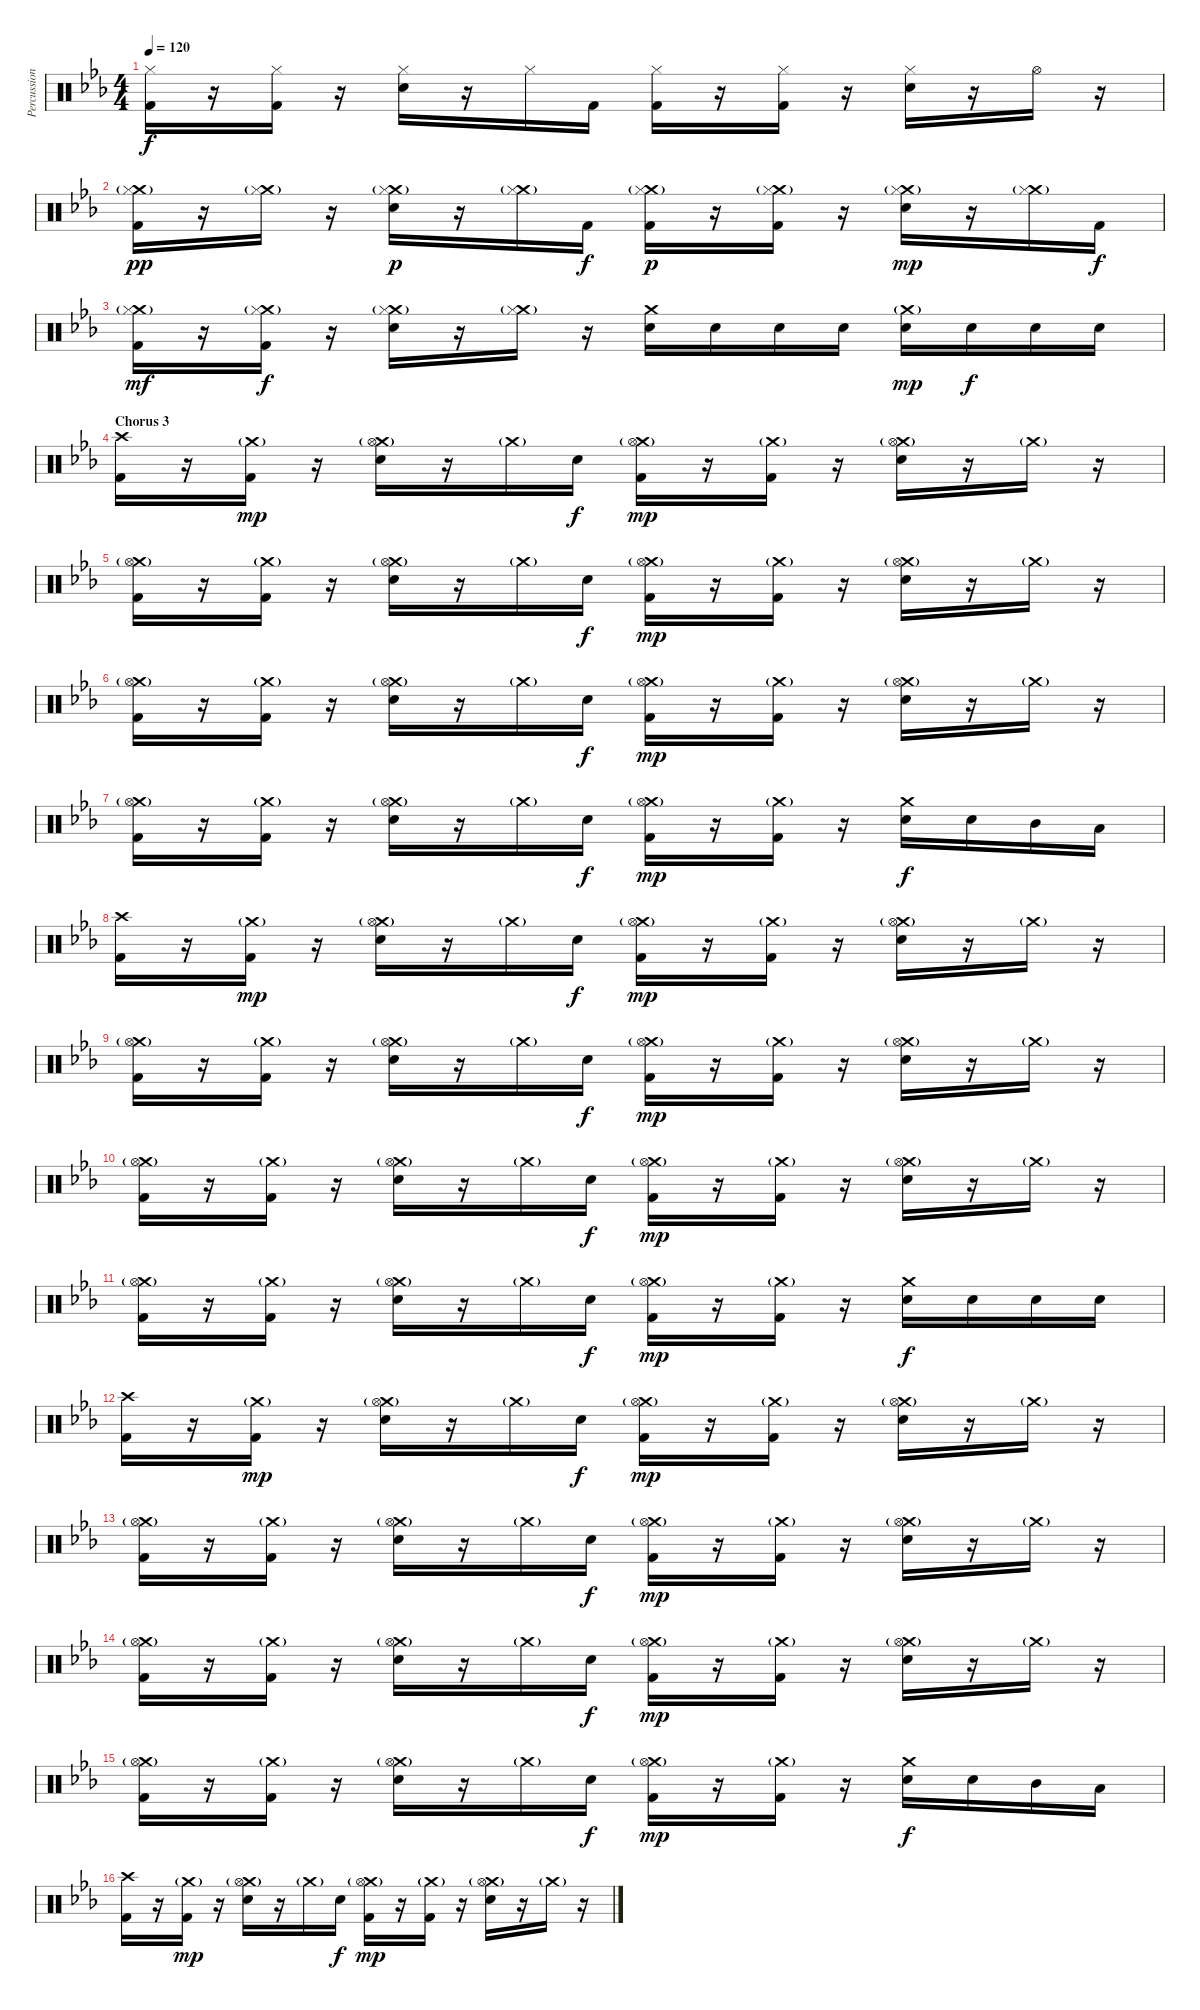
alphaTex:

\track ("Percussion" "Percussion") {instrument percussion}
\staff {score}
\articulation defaults
\ts (4 4)
\tempo 120
\clef neutral
\ks eb
("Hi-Hat (closed)" "Kick (hit) 2").16{dy f} r.16 ("Hi-Hat (closed)" "Kick (hit) 2").16 r.16 ("Hi-Hat (closed)" "Electric Snare (hit)").16 r.16 "Hi-Hat (closed)".16 "Kick (hit) 2".16 ("Hi-Hat (closed)" "Kick (hit) 2").16 r.16 ("Hi-Hat (closed)" "Kick (hit) 2").16 r.16 ("Hi-Hat (closed)" "Electric Snare (hit)").16 r.16 "Hi-Hat (open)".16 r.16 |
("Crash medium (hit)"{g} "Hi-Hat (closed)" "Kick (hit) 2").16{dy pp} r.16 ("Crash medium (hit)"{g} "Hi-Hat (closed)").16 r.16 ("Crash medium (hit)"{g} "Hi-Hat (closed)" "Electric Snare (hit)").16{dy p} r.16 ("Crash medium (hit)"{g} "Hi-Hat (closed)").16 "Kick (hit) 2".16{dy f} ("Crash medium (hit)"{g} "Hi-Hat (closed)" "Kick (hit) 2").16{dy p} r.16 ("Crash medium (hit)"{g} "Hi-Hat (closed)" "Kick (hit) 2").16 r.16 ("Crash medium (hit)"{g} "Hi-Hat (closed)" "Electric Snare (hit)").16{dy mp} r.16 ("Crash medium (hit)"{g} "Hi-Hat (closed)").16 "Kick (hit) 2".16{dy f} |
("Crash medium (hit)"{g} "Hi-Hat (closed)" "Kick (hit) 2").16{dy mf} r.16 ("Crash medium (hit)"{g} "Hi-Hat (closed)" "Kick (hit) 2").16{dy f} r.16 ("Crash medium (hit)"{g} "Hi-Hat (closed)" "Electric Snare (hit)").16 r.16 ("Crash medium (hit)"{g} "Hi-Hat (closed)").16 r.16 ("Crash medium (hit)" "Electric Snare (hit)").16 "Electric Snare (hit)".16 "Electric Snare (hit)".16 "Electric Snare (hit)".16 ("Crash medium (hit)"{g} "Electric Snare (hit)").16{dy mp} "Electric Snare (hit)".16{dy f} "Electric Snare (hit)".16 "Electric Snare (hit)".16 |
\section ("" "Chorus 3")
("Crash high (hit)" "Kick (hit) 2").16 r.16 ("Crash medium (hit)"{g} "Kick (hit) 2").16{dy mp} r.16 ("Crash medium (hit)"{g} "Hi-Hat (open)" "Electric Snare (hit)").16 r.16 "Crash medium (hit)"{g}.16 "Electric Snare (hit)".16{dy f} ("Crash medium (hit)"{g} "Hi-Hat (open)" "Kick (hit) 2").16{dy mp} r.16 ("Crash medium (hit)"{g} "Kick (hit) 2").16 r.16 ("Crash medium (hit)"{g} "Hi-Hat (open)" "Electric Snare (hit)").16 r.16 "Crash medium (hit)"{g}.16 r.16 |
("Crash medium (hit)"{g} "Hi-Hat (open)" "Kick (hit) 2").16 r.16 ("Crash medium (hit)"{g} "Kick (hit) 2").16 r.16 ("Crash medium (hit)"{g} "Hi-Hat (open)" "Electric Snare (hit)").16 r.16 "Crash medium (hit)"{g}.16 "Electric Snare (hit)".16{dy f} ("Crash medium (hit)"{g} "Hi-Hat (open)" "Kick (hit) 2").16{dy mp} r.16 ("Crash medium (hit)"{g} "Kick (hit) 2").16 r.16 ("Crash medium (hit)"{g} "Hi-Hat (open)" "Electric Snare (hit)").16 r.16 "Crash medium (hit)"{g}.16 r.16 |
("Crash medium (hit)"{g} "Hi-Hat (open)" "Kick (hit) 2").16 r.16 ("Crash medium (hit)"{g} "Kick (hit) 2").16 r.16 ("Crash medium (hit)"{g} "Hi-Hat (open)" "Electric Snare (hit)").16 r.16 "Crash medium (hit)"{g}.16 "Electric Snare (hit)".16{dy f} ("Crash medium (hit)"{g} "Hi-Hat (open)" "Kick (hit) 2").16{dy mp} r.16 ("Crash medium (hit)"{g} "Kick (hit) 2").16 r.16 ("Crash medium (hit)"{g} "Hi-Hat (open)" "Electric Snare (hit)").16 r.16 "Crash medium (hit)"{g}.16 r.16 |
("Crash medium (hit)"{g} "Hi-Hat (open)" "Kick (hit) 2").16 r.16 ("Crash medium (hit)"{g} "Kick (hit) 2").16 r.16 ("Crash medium (hit)"{g} "Hi-Hat (open)" "Electric Snare (hit)").16 r.16 "Crash medium (hit)"{g}.16 "Electric Snare (hit)".16{dy f} ("Crash medium (hit)"{g} "Hi-Hat (open)" "Kick (hit) 2").16{dy mp} r.16 ("Crash medium (hit)"{g} "Kick (hit) 2").16 r.16 ("Crash medium (hit)" "Electric Snare (hit)").16{dy f} "Electric Snare (hit)".16 "Mid Tom (hit)".16 "Low Tom (hit)".16 |
("Crash high (hit)" "Kick (hit) 2").16 r.16 ("Crash medium (hit)"{g} "Kick (hit) 2").16{dy mp} r.16 ("Crash medium (hit)"{g} "Hi-Hat (open)" "Electric Snare (hit)").16 r.16 "Crash medium (hit)"{g}.16 "Electric Snare (hit)".16{dy f} ("Crash medium (hit)"{g} "Hi-Hat (open)" "Kick (hit) 2").16{dy mp} r.16 ("Crash medium (hit)"{g} "Kick (hit) 2").16 r.16 ("Crash medium (hit)"{g} "Hi-Hat (open)" "Electric Snare (hit)").16 r.16 "Crash medium (hit)"{g}.16 r.16 |
("Crash medium (hit)"{g} "Hi-Hat (open)" "Kick (hit) 2").16 r.16 ("Crash medium (hit)"{g} "Kick (hit) 2").16 r.16 ("Crash medium (hit)"{g} "Hi-Hat (open)" "Electric Snare (hit)").16 r.16 "Crash medium (hit)"{g}.16 "Electric Snare (hit)".16{dy f} ("Crash medium (hit)"{g} "Hi-Hat (open)" "Kick (hit) 2").16{dy mp} r.16 ("Crash medium (hit)"{g} "Kick (hit) 2").16 r.16 ("Crash medium (hit)"{g} "Hi-Hat (open)" "Electric Snare (hit)").16 r.16 "Crash medium (hit)"{g}.16 r.16 |
("Crash medium (hit)"{g} "Hi-Hat (open)" "Kick (hit) 2").16 r.16 ("Crash medium (hit)"{g} "Kick (hit) 2").16 r.16 ("Crash medium (hit)"{g} "Hi-Hat (open)" "Electric Snare (hit)").16 r.16 "Crash medium (hit)"{g}.16 "Electric Snare (hit)".16{dy f} ("Crash medium (hit)"{g} "Hi-Hat (open)" "Kick (hit) 2").16{dy mp} r.16 ("Crash medium (hit)"{g} "Kick (hit) 2").16 r.16 ("Crash medium (hit)"{g} "Hi-Hat (open)" "Electric Snare (hit)").16 r.16 "Crash medium (hit)"{g}.16 r.16 |
("Crash medium (hit)"{g} "Hi-Hat (open)" "Kick (hit) 2").16 r.16 ("Crash medium (hit)"{g} "Kick (hit) 2").16 r.16 ("Crash medium (hit)"{g} "Hi-Hat (open)" "Electric Snare (hit)").16 r.16 "Crash medium (hit)"{g}.16 "Electric Snare (hit)".16{dy f} ("Crash medium (hit)"{g} "Hi-Hat (open)" "Kick (hit) 2").16{dy mp} r.16 ("Crash medium (hit)"{g} "Kick (hit) 2").16 r.16 ("Crash medium (hit)" "Electric Snare (hit)").16{dy f} "Electric Snare (hit)".16 "Electric Snare (hit)".16 "Electric Snare (hit)".16 |
("Crash high (hit)" "Kick (hit) 2").16 r.16 ("Crash medium (hit)"{g} "Kick (hit) 2").16{dy mp} r.16 ("Crash medium (hit)"{g} "Hi-Hat (open)" "Electric Snare (hit)").16 r.16 "Crash medium (hit)"{g}.16 "Electric Snare (hit)".16{dy f} ("Crash medium (hit)"{g} "Hi-Hat (open)" "Kick (hit) 2").16{dy mp} r.16 ("Crash medium (hit)"{g} "Kick (hit) 2").16 r.16 ("Crash medium (hit)"{g} "Hi-Hat (open)" "Electric Snare (hit)").16 r.16 "Crash medium (hit)"{g}.16 r.16 |
("Crash medium (hit)"{g} "Hi-Hat (open)" "Kick (hit) 2").16 r.16 ("Crash medium (hit)"{g} "Kick (hit) 2").16 r.16 ("Crash medium (hit)"{g} "Hi-Hat (open)" "Electric Snare (hit)").16 r.16 "Crash medium (hit)"{g}.16 "Electric Snare (hit)".16{dy f} ("Crash medium (hit)"{g} "Hi-Hat (open)" "Kick (hit) 2").16{dy mp} r.16 ("Crash medium (hit)"{g} "Kick (hit) 2").16 r.16 ("Crash medium (hit)"{g} "Hi-Hat (open)" "Electric Snare (hit)").16 r.16 "Crash medium (hit)"{g}.16 r.16 |
("Crash medium (hit)"{g} "Hi-Hat (open)" "Kick (hit) 2").16 r.16 ("Crash medium (hit)"{g} "Kick (hit) 2").16 r.16 ("Crash medium (hit)"{g} "Hi-Hat (open)" "Electric Snare (hit)").16 r.16 "Crash medium (hit)"{g}.16 "Electric Snare (hit)".16{dy f} ("Crash medium (hit)"{g} "Hi-Hat (open)" "Kick (hit) 2").16{dy mp} r.16 ("Crash medium (hit)"{g} "Kick (hit) 2").16 r.16 ("Crash medium (hit)"{g} "Hi-Hat (open)" "Electric Snare (hit)").16 r.16 "Crash medium (hit)"{g}.16 r.16 |
("Crash medium (hit)"{g} "Hi-Hat (open)" "Kick (hit) 2").16 r.16 ("Crash medium (hit)"{g} "Kick (hit) 2").16 r.16 ("Crash medium (hit)"{g} "Hi-Hat (open)" "Electric Snare (hit)").16 r.16 "Crash medium (hit)"{g}.16 "Electric Snare (hit)".16{dy f} ("Crash medium (hit)"{g} "Hi-Hat (open)" "Kick (hit) 2").16{dy mp} r.16 ("Crash medium (hit)"{g} "Kick (hit) 2").16 r.16 ("Crash medium (hit)" "Electric Snare (hit)").16{dy f} "Electric Snare (hit)".16 "Mid Tom (hit)".16 "Low Tom (hit)".16 |
("Crash high (hit)" "Kick (hit) 2").16 r.16 ("Crash medium (hit)"{g} "Kick (hit) 2").16{dy mp} r.16 ("Crash medium (hit)"{g} "Hi-Hat (open)" "Electric Snare (hit)").16 r.16 "Crash medium (hit)"{g}.16 "Electric Snare (hit)".16{dy f} ("Crash medium (hit)"{g} "Hi-Hat (open)" "Kick (hit) 2").16{dy mp} r.16 ("Crash medium (hit)"{g} "Kick (hit) 2").16 r.16 ("Crash medium (hit)"{g} "Hi-Hat (open)" "Electric Snare (hit)").16 r.16 "Crash medium (hit)"{g}.16 r.16
